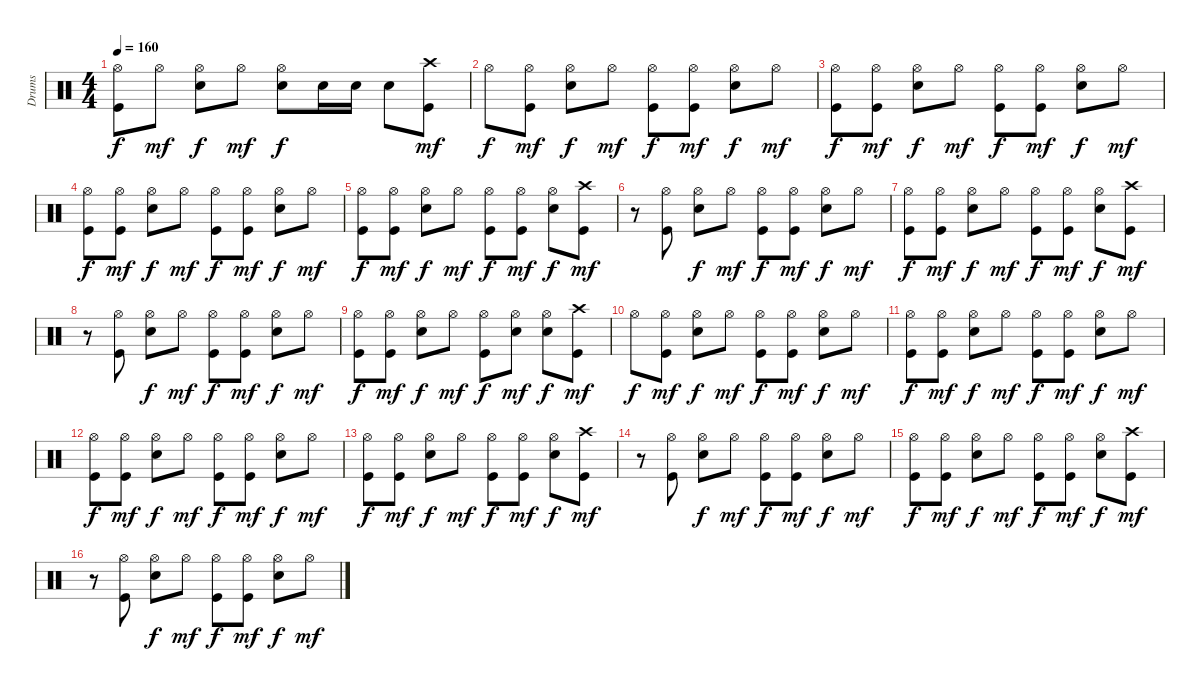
\track ("Drums" "Drums") {instrument percussion}
\staff {score}
\articulation defaults
\ts (4 4)
\tempo 160
\clef neutral
\ks c
("Hi-Hat (open)" "Kick (hit)").8{dy f} "Hi-Hat (open)".8{dy mf} ("Hi-Hat (open)" "Snare (hit) 2").8{dy f} "Hi-Hat (open)".8{dy mf} ("Hi-Hat (open)" "Snare (hit) 2").8{dy f} "Snare (hit) 2".16 "Snare (hit) 2".16 "Snare (hit) 2".8 ("Crash high (hit)" "Kick (hit)").8{dy mf} |
"Hi-Hat (open)".8{dy f} ("Hi-Hat (open)" "Kick (hit)").8{dy mf} ("Hi-Hat (open)" "Snare (hit) 2").8{dy f} "Hi-Hat (open)".8{dy mf} ("Hi-Hat (open)" "Kick (hit)").8{dy f} ("Hi-Hat (open)" "Kick (hit)").8{dy mf} ("Hi-Hat (open)" "Snare (hit) 2").8{dy f} "Hi-Hat (open)".8{dy mf} |
("Hi-Hat (open)" "Kick (hit)").8{dy f} ("Hi-Hat (open)" "Kick (hit)").8{dy mf} ("Hi-Hat (open)" "Snare (hit) 2").8{dy f} "Hi-Hat (open)".8{dy mf} ("Hi-Hat (open)" "Kick (hit)").8{dy f} ("Hi-Hat (open)" "Kick (hit)").8{dy mf} ("Hi-Hat (open)" "Snare (hit) 2").8{dy f} "Hi-Hat (open)".8{dy mf} |
("Hi-Hat (open)" "Kick (hit)").8{dy f} ("Hi-Hat (open)" "Kick (hit)").8{dy mf} ("Hi-Hat (open)" "Snare (hit) 2").8{dy f} "Hi-Hat (open)".8{dy mf} ("Hi-Hat (open)" "Kick (hit)").8{dy f} ("Hi-Hat (open)" "Kick (hit)").8{dy mf} ("Hi-Hat (open)" "Snare (hit) 2").8{dy f} "Hi-Hat (open)".8{dy mf} |
("Hi-Hat (open)" "Kick (hit)").8{dy f} ("Hi-Hat (open)" "Kick (hit)").8{dy mf} ("Hi-Hat (open)" "Snare (hit) 2").8{dy f} "Hi-Hat (open)".8{dy mf} ("Hi-Hat (open)" "Kick (hit)").8{dy f} ("Hi-Hat (open)" "Kick (hit)").8{dy mf} ("Hi-Hat (open)" "Snare (hit) 2").8{dy f} ("Crash high (hit)" "Kick (hit)").8{dy mf} |
r.8 ("Hi-Hat (open)" "Kick (hit)").8 ("Hi-Hat (open)" "Snare (hit) 2").8{dy f} "Hi-Hat (open)".8{dy mf} ("Hi-Hat (open)" "Kick (hit)").8{dy f} ("Hi-Hat (open)" "Kick (hit)").8{dy mf} ("Hi-Hat (open)" "Snare (hit) 2").8{dy f} "Hi-Hat (open)".8{dy mf} |
("Hi-Hat (open)" "Kick (hit)").8{dy f} ("Hi-Hat (open)" "Kick (hit)").8{dy mf} ("Hi-Hat (open)" "Snare (hit) 2").8{dy f} "Hi-Hat (open)".8{dy mf} ("Hi-Hat (open)" "Kick (hit)").8{dy f} ("Hi-Hat (open)" "Kick (hit)").8{dy mf} ("Hi-Hat (open)" "Snare (hit) 2").8{dy f} ("Crash high (hit)" "Kick (hit)").8{dy mf} |
r.8 ("Hi-Hat (open)" "Kick (hit)").8 ("Hi-Hat (open)" "Snare (hit) 2").8{dy f} "Hi-Hat (open)".8{dy mf} ("Hi-Hat (open)" "Kick (hit)").8{dy f} ("Hi-Hat (open)" "Kick (hit)").8{dy mf} ("Hi-Hat (open)" "Snare (hit) 2").8{dy f} "Hi-Hat (open)".8{dy mf} |
("Hi-Hat (open)" "Kick (hit)").8{dy f} ("Hi-Hat (open)" "Kick (hit)").8{dy mf} ("Hi-Hat (open)" "Snare (hit) 2").8{dy f} "Hi-Hat (open)".8{dy mf} ("Hi-Hat (open)" "Kick (hit)").8{dy f} ("Hi-Hat (open)" "Snare (hit) 2").8{dy mf} ("Hi-Hat (open)" "Snare (hit) 2").8{dy f} ("Crash high (hit)" "Kick (hit)").8{dy mf} |
"Hi-Hat (open)".8{dy f} ("Hi-Hat (open)" "Kick (hit)").8{dy mf} ("Hi-Hat (open)" "Snare (hit) 2").8{dy f} "Hi-Hat (open)".8{dy mf} ("Hi-Hat (open)" "Kick (hit)").8{dy f} ("Hi-Hat (open)" "Kick (hit)").8{dy mf} ("Hi-Hat (open)" "Snare (hit) 2").8{dy f} "Hi-Hat (open)".8{dy mf} |
("Hi-Hat (open)" "Kick (hit)").8{dy f} ("Hi-Hat (open)" "Kick (hit)").8{dy mf} ("Hi-Hat (open)" "Snare (hit) 2").8{dy f} "Hi-Hat (open)".8{dy mf} ("Hi-Hat (open)" "Kick (hit)").8{dy f} ("Hi-Hat (open)" "Kick (hit)").8{dy mf} ("Hi-Hat (open)" "Snare (hit) 2").8{dy f} "Hi-Hat (open)".8{dy mf} |
("Hi-Hat (open)" "Kick (hit)").8{dy f} ("Hi-Hat (open)" "Kick (hit)").8{dy mf} ("Hi-Hat (open)" "Snare (hit) 2").8{dy f} "Hi-Hat (open)".8{dy mf} ("Hi-Hat (open)" "Kick (hit)").8{dy f} ("Hi-Hat (open)" "Kick (hit)").8{dy mf} ("Hi-Hat (open)" "Snare (hit) 2").8{dy f} "Hi-Hat (open)".8{dy mf} |
("Hi-Hat (open)" "Kick (hit)").8{dy f} ("Hi-Hat (open)" "Kick (hit)").8{dy mf} ("Hi-Hat (open)" "Snare (hit) 2").8{dy f} "Hi-Hat (open)".8{dy mf} ("Hi-Hat (open)" "Kick (hit)").8{dy f} ("Hi-Hat (open)" "Kick (hit)").8{dy mf} ("Hi-Hat (open)" "Snare (hit) 2").8{dy f} ("Crash high (hit)" "Kick (hit)").8{dy mf} |
r.8 ("Hi-Hat (open)" "Kick (hit)").8 ("Hi-Hat (open)" "Snare (hit) 2").8{dy f} "Hi-Hat (open)".8{dy mf} ("Hi-Hat (open)" "Kick (hit)").8{dy f} ("Hi-Hat (open)" "Kick (hit)").8{dy mf} ("Hi-Hat (open)" "Snare (hit) 2").8{dy f} "Hi-Hat (open)".8{dy mf} |
("Hi-Hat (open)" "Kick (hit)").8{dy f} ("Hi-Hat (open)" "Kick (hit)").8{dy mf} ("Hi-Hat (open)" "Snare (hit) 2").8{dy f} "Hi-Hat (open)".8{dy mf} ("Hi-Hat (open)" "Kick (hit)").8{dy f} ("Hi-Hat (open)" "Kick (hit)").8{dy mf} ("Hi-Hat (open)" "Snare (hit) 2").8{dy f} ("Crash high (hit)" "Kick (hit)").8{dy mf} |
r.8 ("Hi-Hat (open)" "Kick (hit)").8 ("Hi-Hat (open)" "Snare (hit) 2").8{dy f} "Hi-Hat (open)".8{dy mf} ("Hi-Hat (open)" "Kick (hit)").8{dy f} ("Hi-Hat (open)" "Kick (hit)").8{dy mf} ("Hi-Hat (open)" "Snare (hit) 2").8{dy f} "Hi-Hat (open)".8{dy mf}
